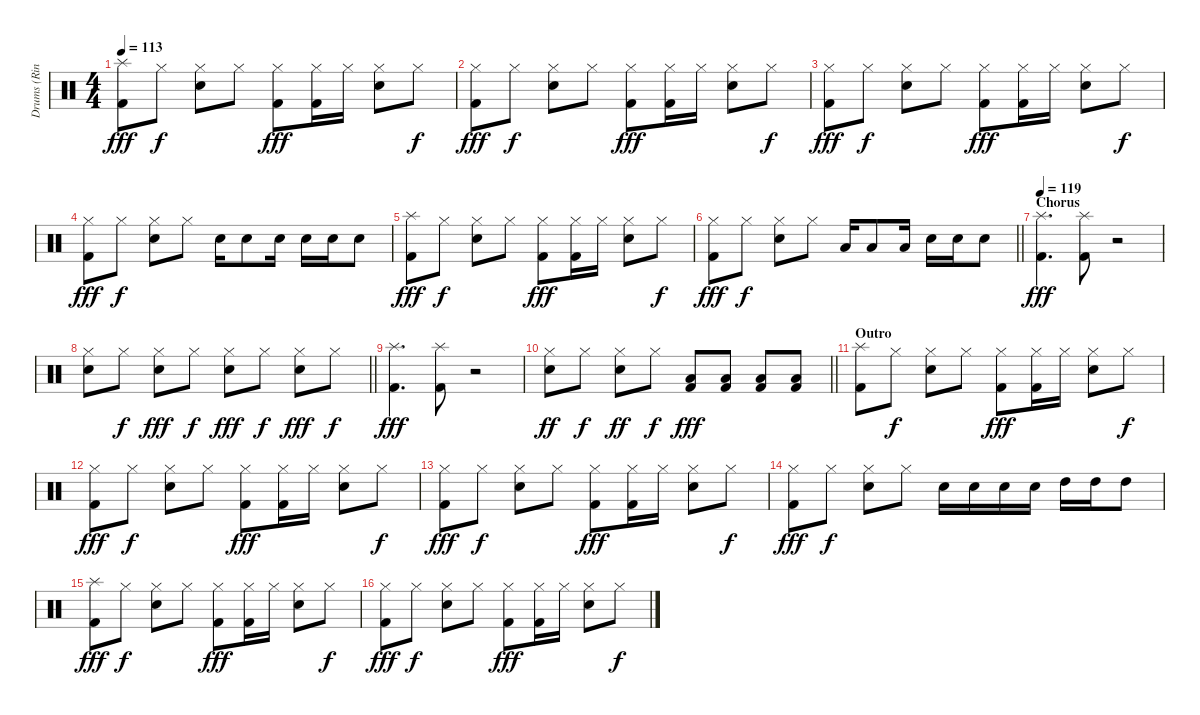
\track ("Drums (Ringo Starr)" "Drums (Rin") {instrument percussion}
\staff {score}
\articulation defaults
\ts (4 4)
\tempo 113
\clef neutral
\ks c
("Splash (hit)" "Kick (hit) 2").8{dy fff} "Hi-Hat (closed)".8{dy f} ("Hi-Hat (closed)" "Snare (hit) 2").8 "Hi-Hat (closed)".8 ("Hi-Hat (closed)" "Kick (hit) 2").8{dy fff} ("Hi-Hat (closed)" "Kick (hit) 2").16 "Hi-Hat (closed)".16 ("Hi-Hat (closed)" "Snare (hit) 2").8 "Hi-Hat (closed)".8{dy f} |
("Hi-Hat (closed)" "Kick (hit) 2").8{dy fff} "Hi-Hat (closed)".8{dy f} ("Hi-Hat (closed)" "Snare (hit) 2").8 "Hi-Hat (closed)".8 ("Hi-Hat (closed)" "Kick (hit) 2").8{dy fff} ("Hi-Hat (closed)" "Kick (hit) 2").16 "Hi-Hat (closed)".16 ("Hi-Hat (closed)" "Snare (hit) 2").8 "Hi-Hat (closed)".8{dy f} |
("Hi-Hat (closed)" "Kick (hit) 2").8{dy fff} "Hi-Hat (closed)".8{dy f} ("Hi-Hat (closed)" "Snare (hit) 2").8 "Hi-Hat (closed)".8 ("Hi-Hat (closed)" "Kick (hit) 2").8{dy fff} ("Hi-Hat (closed)" "Kick (hit) 2").16 "Hi-Hat (closed)".16 ("Hi-Hat (closed)" "Snare (hit) 2").8 "Hi-Hat (closed)".8{dy f} |
("Hi-Hat (closed)" "Kick (hit) 2").8{dy fff} "Hi-Hat (closed)".8{dy f} ("Hi-Hat (closed)" "Snare (hit) 2").8 "Hi-Hat (closed)".8 "Snare (hit) 2".16 "Snare (hit) 2".8 "Snare (hit) 2".16 "Snare (hit) 2".16 "Snare (hit) 2".16 "Snare (hit) 2".8 |
("Splash (hit)" "Kick (hit) 2").8{dy fff} "Hi-Hat (closed)".8{dy f} ("Hi-Hat (closed)" "Snare (hit) 2").8 "Hi-Hat (closed)".8 ("Hi-Hat (closed)" "Kick (hit) 2").8{dy fff} ("Hi-Hat (closed)" "Kick (hit) 2").16 "Hi-Hat (closed)".16 ("Hi-Hat (closed)" "Snare (hit) 2").8 "Hi-Hat (closed)".8{dy f} |
\barLineRight lightlight
("Hi-Hat (closed)" "Kick (hit) 2").8{dy fff} "Hi-Hat (closed)".8{dy f} ("Hi-Hat (closed)" "Snare (hit) 2").8 "Hi-Hat (closed)".8 "Low Floor Tom (hit)".16 "Low Floor Tom (hit)".8 "Low Floor Tom (hit)".16 "Snare (hit) 2".16 "Snare (hit) 2".16 "Snare (hit) 2".8 |
\section ("" "Chorus")
\tempo 119
("Splash (hit)" "Kick (hit) 2").4{d dy fff} ("Splash (hit)" "Kick (hit) 2").8 r.2 |
\barLineRight lightlight
("Hi-Hat (closed)" "Snare (hit) 2").8 "Hi-Hat (closed)".8{dy f} ("Hi-Hat (closed)" "Snare (hit) 2").8{dy fff} "Hi-Hat (closed)".8{dy f} ("Hi-Hat (closed)" "Snare (hit) 2").8{dy fff} "Hi-Hat (closed)".8{dy f} ("Hi-Hat (closed)" "Snare (hit) 2").8{dy fff} "Hi-Hat (closed)".8{dy f} |
("Splash (hit)" "Kick (hit) 2").4{d dy fff} ("Splash (hit)" "Kick (hit) 2").8 r.2 |
\barLineRight lightlight
("Hi-Hat (closed)" "Snare (hit) 2").8{dy ff} "Hi-Hat (closed)".8{dy f} ("Hi-Hat (closed)" "Snare (hit) 2").8{dy ff} "Hi-Hat (closed)".8{dy f} ("Low Floor Tom (hit)" "Kick (hit) 2").8{dy fff} ("Low Floor Tom (hit)" "Kick (hit) 2").8 ("Low Floor Tom (hit)" "Kick (hit) 2").8 ("Low Floor Tom (hit)" "Kick (hit) 2").8 |
\section ("" "Outro")
("Splash (hit)" "Kick (hit) 2").8 "Hi-Hat (closed)".8{dy f} ("Hi-Hat (closed)" "Snare (hit) 2").8 "Hi-Hat (closed)".8 ("Hi-Hat (closed)" "Kick (hit) 2").8{dy fff} ("Hi-Hat (closed)" "Kick (hit) 2").16 "Hi-Hat (closed)".16 ("Hi-Hat (closed)" "Snare (hit) 2").8 "Hi-Hat (closed)".8{dy f} |
("Hi-Hat (closed)" "Kick (hit) 2").8{dy fff} "Hi-Hat (closed)".8{dy f} ("Hi-Hat (closed)" "Snare (hit) 2").8 "Hi-Hat (closed)".8 ("Hi-Hat (closed)" "Kick (hit) 2").8{dy fff} ("Hi-Hat (closed)" "Kick (hit) 2").16 "Hi-Hat (closed)".16 ("Hi-Hat (closed)" "Snare (hit) 2").8 "Hi-Hat (closed)".8{dy f} |
("Hi-Hat (closed)" "Kick (hit) 2").8{dy fff} "Hi-Hat (closed)".8{dy f} ("Hi-Hat (closed)" "Snare (hit) 2").8 "Hi-Hat (closed)".8 ("Hi-Hat (closed)" "Kick (hit) 2").8{dy fff} ("Hi-Hat (closed)" "Kick (hit) 2").16 "Hi-Hat (closed)".16 ("Hi-Hat (closed)" "Snare (hit) 2").8 "Hi-Hat (closed)".8{dy f} |
("Hi-Hat (closed)" "Kick (hit) 2").8{dy fff} "Hi-Hat (closed)".8{dy f} ("Hi-Hat (closed)" "Snare (hit) 2").8 "Hi-Hat (closed)".8 "Snare (hit) 2".16 "Snare (hit) 2".16 "Snare (hit) 2".16 "Snare (hit) 2".16 "High Tom (hit)".16 "High Tom (hit)".16 "High Tom (hit)".8 |
("Splash (hit)" "Kick (hit) 2").8{dy fff} "Hi-Hat (closed)".8{dy f} ("Hi-Hat (closed)" "Snare (hit) 2").8 "Hi-Hat (closed)".8 ("Hi-Hat (closed)" "Kick (hit) 2").8{dy fff} ("Hi-Hat (closed)" "Kick (hit) 2").16 "Hi-Hat (closed)".16 ("Hi-Hat (closed)" "Snare (hit) 2").8 "Hi-Hat (closed)".8{dy f} |
("Hi-Hat (closed)" "Kick (hit) 2").8{dy fff} "Hi-Hat (closed)".8{dy f} ("Hi-Hat (closed)" "Snare (hit) 2").8 "Hi-Hat (closed)".8 ("Hi-Hat (closed)" "Kick (hit) 2").8{dy fff} ("Hi-Hat (closed)" "Kick (hit) 2").16 "Hi-Hat (closed)".16 ("Hi-Hat (closed)" "Snare (hit) 2").8 "Hi-Hat (closed)".8{dy f}
